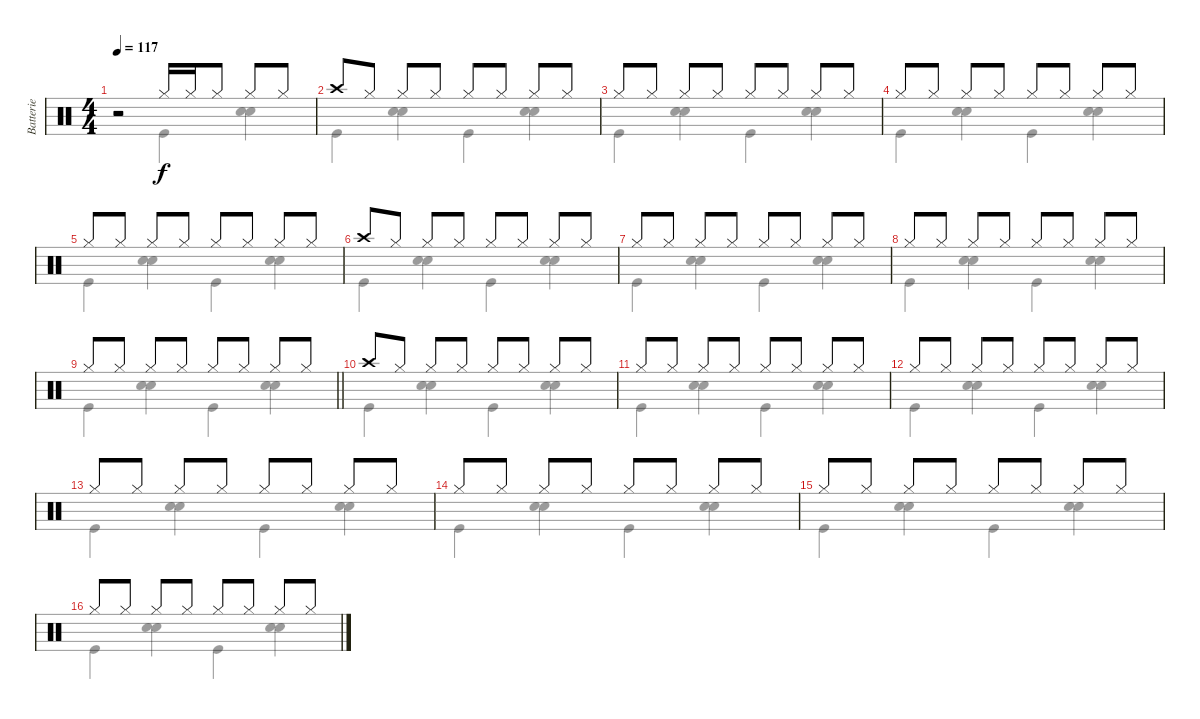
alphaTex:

\track ("Batterie" "Batterie") {instrument percussion}
\staff {score}
\articulation defaults
\voice
\ts (4 4)
\tempo 117
\clef neutral
\ks c
r.2{dy f} "Hi-Hat (closed)".16 "Hi-Hat (closed)".16 "Hi-Hat (closed)".8 "Hi-Hat (closed)".8 "Hi-Hat (closed)".8 |
"Crash high (hit)".8 "Hi-Hat (closed)".8 "Hi-Hat (closed)".8 "Hi-Hat (closed)".8 "Hi-Hat (closed)".8 "Hi-Hat (closed)".8 "Hi-Hat (closed)".8 "Hi-Hat (closed)".8 |
"Hi-Hat (closed)".8 "Hi-Hat (closed)".8 "Hi-Hat (closed)".8 "Hi-Hat (closed)".8 "Hi-Hat (closed)".8 "Hi-Hat (closed)".8 "Hi-Hat (closed)".8 "Hi-Hat (closed)".8 |
"Hi-Hat (closed)".8 "Hi-Hat (closed)".8 "Hi-Hat (closed)".8 "Hi-Hat (closed)".8 "Hi-Hat (closed)".8 "Hi-Hat (closed)".8 "Hi-Hat (closed)".8 "Hi-Hat (closed)".8 |
"Hi-Hat (closed)".8 "Hi-Hat (closed)".8 "Hi-Hat (closed)".8 "Hi-Hat (closed)".8 "Hi-Hat (closed)".8 "Hi-Hat (closed)".8 "Hi-Hat (closed)".8 "Hi-Hat (closed)".8 |
"Crash high (hit)".8 "Hi-Hat (closed)".8 "Hi-Hat (closed)".8 "Hi-Hat (closed)".8 "Hi-Hat (closed)".8 "Hi-Hat (closed)".8 "Hi-Hat (closed)".8 "Hi-Hat (closed)".8 |
"Hi-Hat (closed)".8 "Hi-Hat (closed)".8 "Hi-Hat (closed)".8 "Hi-Hat (closed)".8 "Hi-Hat (closed)".8 "Hi-Hat (closed)".8 "Hi-Hat (closed)".8 "Hi-Hat (closed)".8 |
"Hi-Hat (closed)".8 "Hi-Hat (closed)".8 "Hi-Hat (closed)".8 "Hi-Hat (closed)".8 "Hi-Hat (closed)".8 "Hi-Hat (closed)".8 "Hi-Hat (closed)".8 "Hi-Hat (closed)".8 |
\barLineRight lightlight "Hi-Hat (closed)".8 "Hi-Hat (closed)".8 "Hi-Hat (closed)".8 "Hi-Hat (closed)".8 "Hi-Hat (closed)".8 "Hi-Hat (closed)".8 "Hi-Hat (closed)".8 "Hi-Hat (closed)".8
|
"Crash high (hit)".8 "Hi-Hat (closed)".8 "Hi-Hat (closed)".8 "Hi-Hat (closed)".8 "Hi-Hat (closed)".8 "Hi-Hat (closed)".8 "Hi-Hat (closed)".8 "Hi-Hat (closed)".8 |
"Hi-Hat (closed)".8 "Hi-Hat (closed)".8 "Hi-Hat (closed)".8 "Hi-Hat (closed)".8 "Hi-Hat (closed)".8 "Hi-Hat (closed)".8 "Hi-Hat (closed)".8 "Hi-Hat (closed)".8 |
"Hi-Hat (closed)".8 "Hi-Hat (closed)".8 "Hi-Hat (closed)".8 "Hi-Hat (closed)".8 "Hi-Hat (closed)".8 "Hi-Hat (closed)".8 "Hi-Hat (closed)".8 "Hi-Hat (closed)".8 |
"Hi-Hat (closed)".8 "Hi-Hat (closed)".8 "Hi-Hat (closed)".8 "Hi-Hat (closed)".8 "Hi-Hat (closed)".8 "Hi-Hat (closed)".8 "Hi-Hat (closed)".8 "Hi-Hat (closed)".8 |
"Hi-Hat (closed)".8 "Hi-Hat (closed)".8 "Hi-Hat (closed)".8 "Hi-Hat (closed)".8 "Hi-Hat (closed)".8 "Hi-Hat (closed)".8 "Hi-Hat (closed)".8 "Hi-Hat (closed)".8 |
"Hi-Hat (closed)".8 "Hi-Hat (closed)".8 "Hi-Hat (closed)".8 "Hi-Hat (closed)".8 "Hi-Hat (closed)".8 "Hi-Hat (closed)".8 "Hi-Hat (closed)".8 "Hi-Hat (closed)".8 |
"Hi-Hat (closed)".8 "Hi-Hat (closed)".8 "Hi-Hat (closed)".8 "Hi-Hat (closed)".8 "Hi-Hat (closed)".8 "Hi-Hat (closed)".8 "Hi-Hat (closed)".8 "Hi-Hat (closed)".8
\voice
\clef neutral
\ottava regular
\simile none
\ks c
r.2{dy f} "Kick (hit)".4 ("Hand Clap (hit)" "Snare (hit) 2").4 |
"Kick (hit)".4 ("Hand Clap (hit)" "Snare (hit) 2").4 "Kick (hit)".4 ("Hand Clap (hit)" "Snare (hit) 2").4 |
"Kick (hit)".4 ("Hand Clap (hit)" "Snare (hit) 2").4 "Kick (hit)".4 ("Hand Clap (hit)" "Snare (hit) 2").4 |
"Kick (hit)".4 ("Hand Clap (hit)" "Snare (hit) 2").4 "Kick (hit)".4 ("Hand Clap (hit)" "Snare (hit) 2").4 |
"Kick (hit)".4 ("Hand Clap (hit)" "Snare (hit) 2").4 "Kick (hit)".4 ("Hand Clap (hit)" "Snare (hit) 2").4 |
"Kick (hit)".4 ("Hand Clap (hit)" "Snare (hit) 2").4 "Kick (hit)".4 ("Hand Clap (hit)" "Snare (hit) 2").4 |
"Kick (hit)".4 ("Hand Clap (hit)" "Snare (hit) 2").4 "Kick (hit)".4 ("Hand Clap (hit)" "Snare (hit) 2").4 |
"Kick (hit)".4 ("Hand Clap (hit)" "Snare (hit) 2").4 "Kick (hit)".4 ("Hand Clap (hit)" "Snare (hit) 2").4 |
\barLineRight lightlight "Kick (hit)".4
("Hand Clap (hit)" "Snare (hit) 2").4 "Kick (hit)".4 ("Hand Clap (hit)" "Snare (hit) 2").4 |
"Kick (hit)".4 ("Hand Clap (hit)" "Snare (hit) 2").4 "Kick (hit)".4 ("Hand Clap (hit)" "Snare (hit) 2").4 |
"Kick (hit)".4 ("Hand Clap (hit)" "Snare (hit) 2").4 "Kick (hit)".4 ("Hand Clap (hit)" "Snare (hit) 2").4 |
"Kick (hit)".4 ("Hand Clap (hit)" "Snare (hit) 2").4 "Kick (hit)".4 ("Hand Clap (hit)" "Snare (hit) 2").4 |
"Kick (hit)".4 ("Hand Clap (hit)" "Snare (hit) 2").4 "Kick (hit)".4 ("Hand Clap (hit)" "Snare (hit) 2").4 |
"Kick (hit)".4 ("Hand Clap (hit)" "Snare (hit) 2").4 "Kick (hit)".4 ("Hand Clap (hit)" "Snare (hit) 2").4 |
"Kick (hit)".4 ("Hand Clap (hit)" "Snare (hit) 2").4 "Kick (hit)".4 ("Hand Clap (hit)" "Snare (hit) 2").4 |
"Kick (hit)".4 ("Hand Clap (hit)" "Snare (hit) 2").4 "Kick (hit)".4 ("Hand Clap (hit)" "Snare (hit) 2").4
